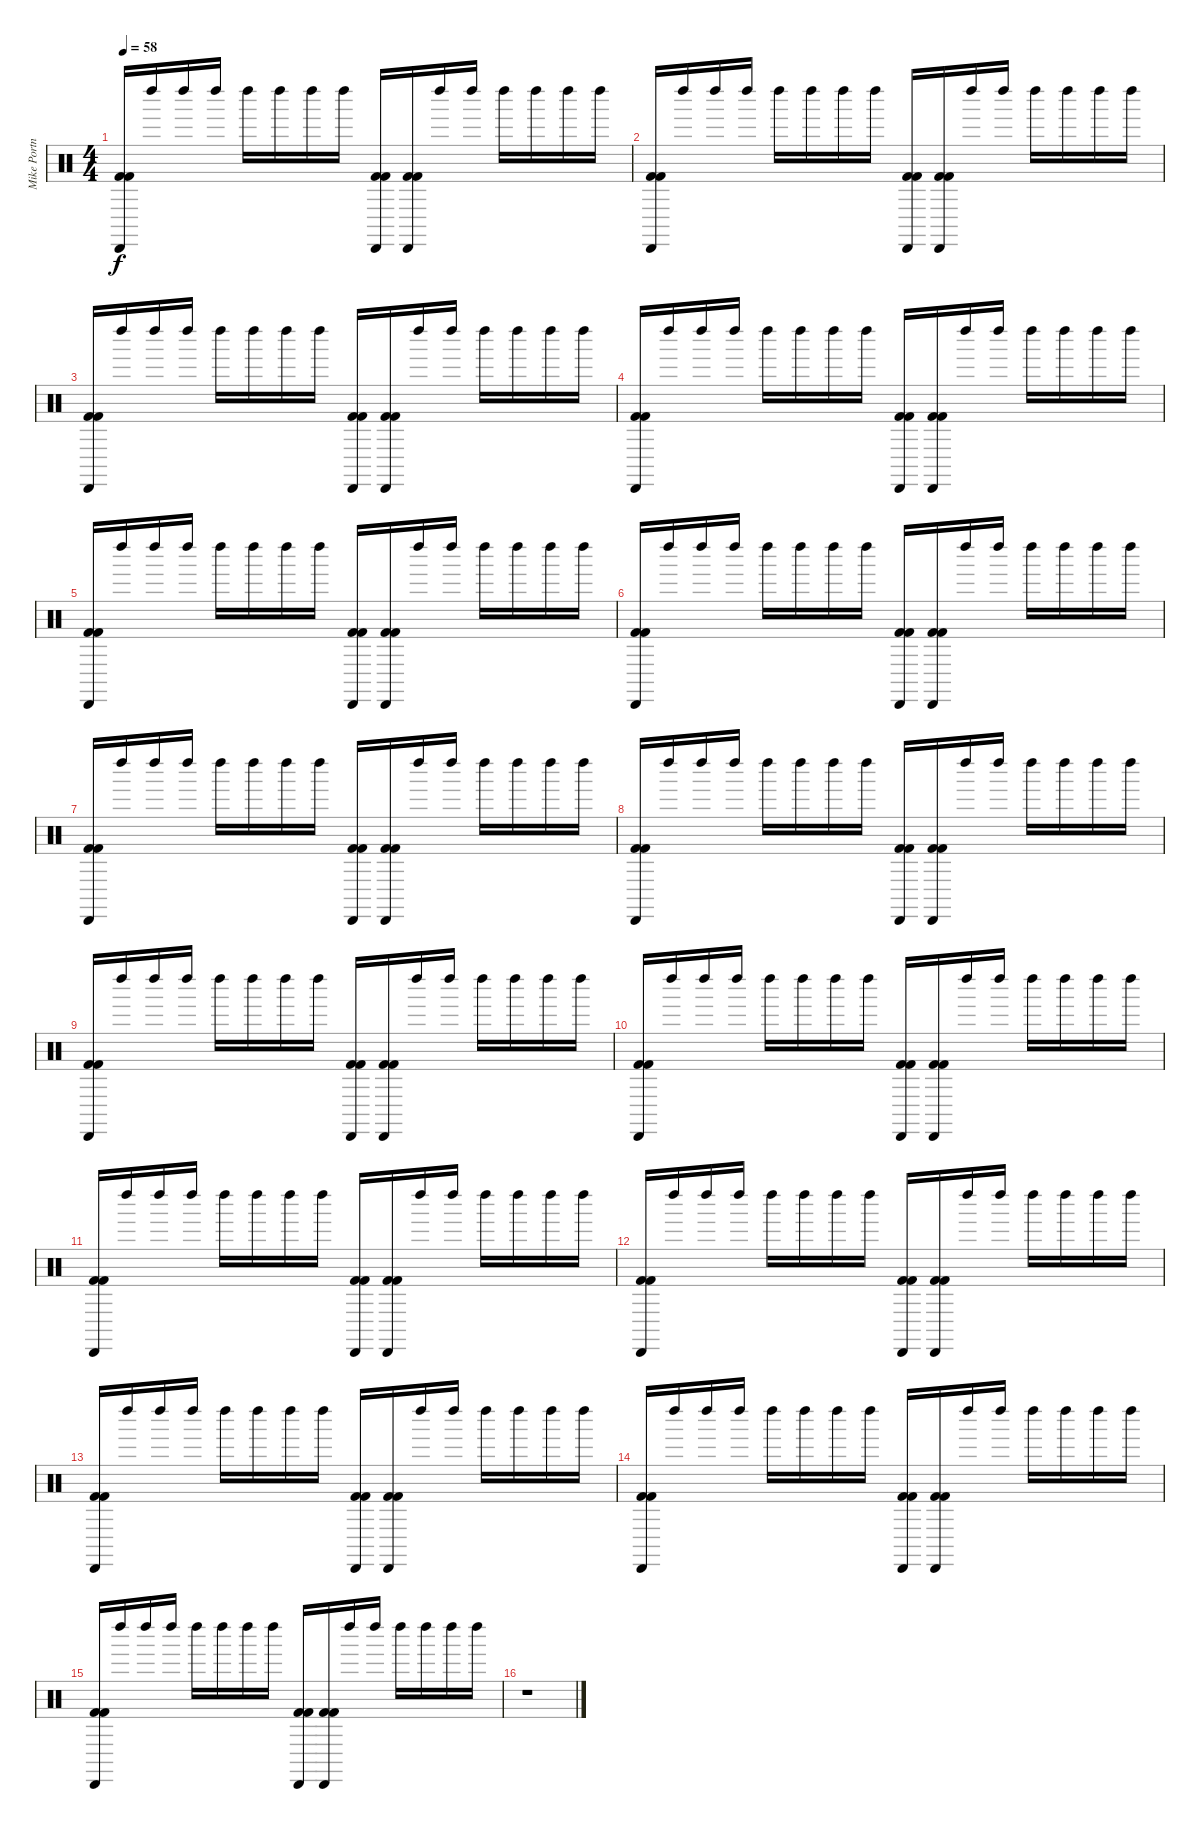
\track ("Mike Portnoy - Drum" "Mike Portn") {instrument percussion}
\staff {score}
\articulation defaults
\ts (4 4)
\tempo 58
\clef neutral
\ks c
("Cabasa (hit)" "Kick (hit) 2" "Kick (hit) 2").16{dy f} "Left Maraca (hit)".16 "Left Maraca (hit)".16 "Left Maraca (hit)".16 "Left Maraca (hit)".16 "Left Maraca (hit)".16 "Left Maraca (hit)".16 "Left Maraca (hit)".16 ("Cabasa (hit)" "Kick (hit) 2" "Kick (hit) 2").16 ("Cabasa (hit)" "Kick (hit) 2" "Kick (hit) 2").16 "Left Maraca (hit)".16 "Left Maraca (hit)".16 "Left Maraca (hit)".16 "Left Maraca (hit)".16 "Left Maraca (hit)".16 "Left Maraca (hit)".16 |
("Cabasa (hit)" "Kick (hit) 2" "Kick (hit) 2").16 "Left Maraca (hit)".16 "Left Maraca (hit)".16 "Left Maraca (hit)".16 "Left Maraca (hit)".16 "Left Maraca (hit)".16 "Left Maraca (hit)".16 "Left Maraca (hit)".16 ("Cabasa (hit)" "Kick (hit) 2" "Kick (hit) 2").16 ("Cabasa (hit)" "Kick (hit) 2" "Kick (hit) 2").16 "Left Maraca (hit)".16 "Left Maraca (hit)".16 "Left Maraca (hit)".16 "Left Maraca (hit)".16 "Left Maraca (hit)".16 "Left Maraca (hit)".16 |
("Cabasa (hit)" "Kick (hit) 2" "Kick (hit) 2").16 "Left Maraca (hit)".16 "Left Maraca (hit)".16 "Left Maraca (hit)".16 "Left Maraca (hit)".16 "Left Maraca (hit)".16 "Left Maraca (hit)".16 "Left Maraca (hit)".16 ("Cabasa (hit)" "Kick (hit) 2" "Kick (hit) 2").16 ("Cabasa (hit)" "Kick (hit) 2" "Kick (hit) 2").16 "Left Maraca (hit)".16 "Left Maraca (hit)".16 "Left Maraca (hit)".16 "Left Maraca (hit)".16 "Left Maraca (hit)".16 "Left Maraca (hit)".16 |
("Cabasa (hit)" "Kick (hit) 2" "Kick (hit) 2").16 "Left Maraca (hit)".16 "Left Maraca (hit)".16 "Left Maraca (hit)".16 "Left Maraca (hit)".16 "Left Maraca (hit)".16 "Left Maraca (hit)".16 "Left Maraca (hit)".16 ("Cabasa (hit)" "Kick (hit) 2" "Kick (hit) 2").16 ("Cabasa (hit)" "Kick (hit) 2" "Kick (hit) 2").16 "Left Maraca (hit)".16 "Left Maraca (hit)".16 "Left Maraca (hit)".16 "Left Maraca (hit)".16 "Left Maraca (hit)".16 "Left Maraca (hit)".16 |
("Cabasa (hit)" "Kick (hit) 2" "Kick (hit) 2").16 "Left Maraca (hit)".16 "Left Maraca (hit)".16 "Left Maraca (hit)".16 "Left Maraca (hit)".16 "Left Maraca (hit)".16 "Left Maraca (hit)".16 "Left Maraca (hit)".16 ("Cabasa (hit)" "Kick (hit) 2" "Kick (hit) 2").16 ("Cabasa (hit)" "Kick (hit) 2" "Kick (hit) 2").16 "Left Maraca (hit)".16 "Left Maraca (hit)".16 "Left Maraca (hit)".16 "Left Maraca (hit)".16 "Left Maraca (hit)".16 "Left Maraca (hit)".16 |
("Cabasa (hit)" "Kick (hit) 2" "Kick (hit) 2").16 "Left Maraca (hit)".16 "Left Maraca (hit)".16 "Left Maraca (hit)".16 "Left Maraca (hit)".16 "Left Maraca (hit)".16 "Left Maraca (hit)".16 "Left Maraca (hit)".16 ("Cabasa (hit)" "Kick (hit) 2" "Kick (hit) 2").16 ("Cabasa (hit)" "Kick (hit) 2" "Kick (hit) 2").16 "Left Maraca (hit)".16 "Left Maraca (hit)".16 "Left Maraca (hit)".16 "Left Maraca (hit)".16 "Left Maraca (hit)".16 "Left Maraca (hit)".16 |
("Cabasa (hit)" "Kick (hit) 2" "Kick (hit) 2").16 "Left Maraca (hit)".16 "Left Maraca (hit)".16 "Left Maraca (hit)".16 "Left Maraca (hit)".16 "Left Maraca (hit)".16 "Left Maraca (hit)".16 "Left Maraca (hit)".16 ("Cabasa (hit)" "Kick (hit) 2" "Kick (hit) 2").16 ("Cabasa (hit)" "Kick (hit) 2" "Kick (hit) 2").16 "Left Maraca (hit)".16 "Left Maraca (hit)".16 "Left Maraca (hit)".16 "Left Maraca (hit)".16 "Left Maraca (hit)".16 "Left Maraca (hit)".16 |
("Cabasa (hit)" "Kick (hit) 2" "Kick (hit) 2").16 "Left Maraca (hit)".16 "Left Maraca (hit)".16 "Left Maraca (hit)".16 "Left Maraca (hit)".16 "Left Maraca (hit)".16 "Left Maraca (hit)".16 "Left Maraca (hit)".16 ("Cabasa (hit)" "Kick (hit) 2" "Kick (hit) 2").16 ("Cabasa (hit)" "Kick (hit) 2" "Kick (hit) 2").16 "Left Maraca (hit)".16 "Left Maraca (hit)".16 "Left Maraca (hit)".16 "Left Maraca (hit)".16 "Left Maraca (hit)".16 "Left Maraca (hit)".16 |
("Cabasa (hit)" "Kick (hit) 2" "Kick (hit) 2").16 "Left Maraca (hit)".16 "Left Maraca (hit)".16 "Left Maraca (hit)".16 "Left Maraca (hit)".16 "Left Maraca (hit)".16 "Left Maraca (hit)".16 "Left Maraca (hit)".16 ("Cabasa (hit)" "Kick (hit) 2" "Kick (hit) 2").16 ("Cabasa (hit)" "Kick (hit) 2" "Kick (hit) 2").16 "Left Maraca (hit)".16 "Left Maraca (hit)".16 "Left Maraca (hit)".16 "Left Maraca (hit)".16 "Left Maraca (hit)".16 "Left Maraca (hit)".16 |
("Cabasa (hit)" "Kick (hit) 2" "Kick (hit) 2").16 "Left Maraca (hit)".16 "Left Maraca (hit)".16 "Left Maraca (hit)".16 "Left Maraca (hit)".16 "Left Maraca (hit)".16 "Left Maraca (hit)".16 "Left Maraca (hit)".16 ("Cabasa (hit)" "Kick (hit) 2" "Kick (hit) 2").16 ("Cabasa (hit)" "Kick (hit) 2" "Kick (hit) 2").16 "Left Maraca (hit)".16 "Left Maraca (hit)".16 "Left Maraca (hit)".16 "Left Maraca (hit)".16 "Left Maraca (hit)".16 "Left Maraca (hit)".16 |
("Cabasa (hit)" "Kick (hit) 2" "Kick (hit) 2").16 "Left Maraca (hit)".16 "Left Maraca (hit)".16 "Left Maraca (hit)".16 "Left Maraca (hit)".16 "Left Maraca (hit)".16 "Left Maraca (hit)".16 "Left Maraca (hit)".16 ("Cabasa (hit)" "Kick (hit) 2" "Kick (hit) 2").16 ("Cabasa (hit)" "Kick (hit) 2" "Kick (hit) 2").16 "Left Maraca (hit)".16 "Left Maraca (hit)".16 "Left Maraca (hit)".16 "Left Maraca (hit)".16 "Left Maraca (hit)".16 "Left Maraca (hit)".16 |
("Cabasa (hit)" "Kick (hit) 2" "Kick (hit) 2").16 "Left Maraca (hit)".16 "Left Maraca (hit)".16 "Left Maraca (hit)".16 "Left Maraca (hit)".16 "Left Maraca (hit)".16 "Left Maraca (hit)".16 "Left Maraca (hit)".16 ("Cabasa (hit)" "Kick (hit) 2" "Kick (hit) 2").16 ("Cabasa (hit)" "Kick (hit) 2" "Kick (hit) 2").16 "Left Maraca (hit)".16 "Left Maraca (hit)".16 "Left Maraca (hit)".16 "Left Maraca (hit)".16 "Left Maraca (hit)".16 "Left Maraca (hit)".16 |
("Cabasa (hit)" "Kick (hit) 2" "Kick (hit) 2").16 "Left Maraca (hit)".16 "Left Maraca (hit)".16 "Left Maraca (hit)".16 "Left Maraca (hit)".16 "Left Maraca (hit)".16 "Left Maraca (hit)".16 "Left Maraca (hit)".16 ("Cabasa (hit)" "Kick (hit) 2" "Kick (hit) 2").16 ("Cabasa (hit)" "Kick (hit) 2" "Kick (hit) 2").16 "Left Maraca (hit)".16 "Left Maraca (hit)".16 "Left Maraca (hit)".16 "Left Maraca (hit)".16 "Left Maraca (hit)".16 "Left Maraca (hit)".16 |
("Cabasa (hit)" "Kick (hit) 2" "Kick (hit) 2").16 "Left Maraca (hit)".16 "Left Maraca (hit)".16 "Left Maraca (hit)".16 "Left Maraca (hit)".16 "Left Maraca (hit)".16 "Left Maraca (hit)".16 "Left Maraca (hit)".16 ("Cabasa (hit)" "Kick (hit) 2" "Kick (hit) 2").16 ("Cabasa (hit)" "Kick (hit) 2" "Kick (hit) 2").16 "Left Maraca (hit)".16 "Left Maraca (hit)".16 "Left Maraca (hit)".16 "Left Maraca (hit)".16 "Left Maraca (hit)".16 "Left Maraca (hit)".16 |
("Cabasa (hit)" "Kick (hit) 2" "Kick (hit) 2").16 "Left Maraca (hit)".16 "Left Maraca (hit)".16 "Left Maraca (hit)".16 "Left Maraca (hit)".16 "Left Maraca (hit)".16 "Left Maraca (hit)".16 "Left Maraca (hit)".16 ("Cabasa (hit)" "Kick (hit) 2" "Kick (hit) 2").16 ("Cabasa (hit)" "Kick (hit) 2" "Kick (hit) 2").16 "Left Maraca (hit)".16 "Left Maraca (hit)".16 "Left Maraca (hit)".16 "Left Maraca (hit)".16 "Left Maraca (hit)".16 "Left Maraca (hit)".16 |
r.1
